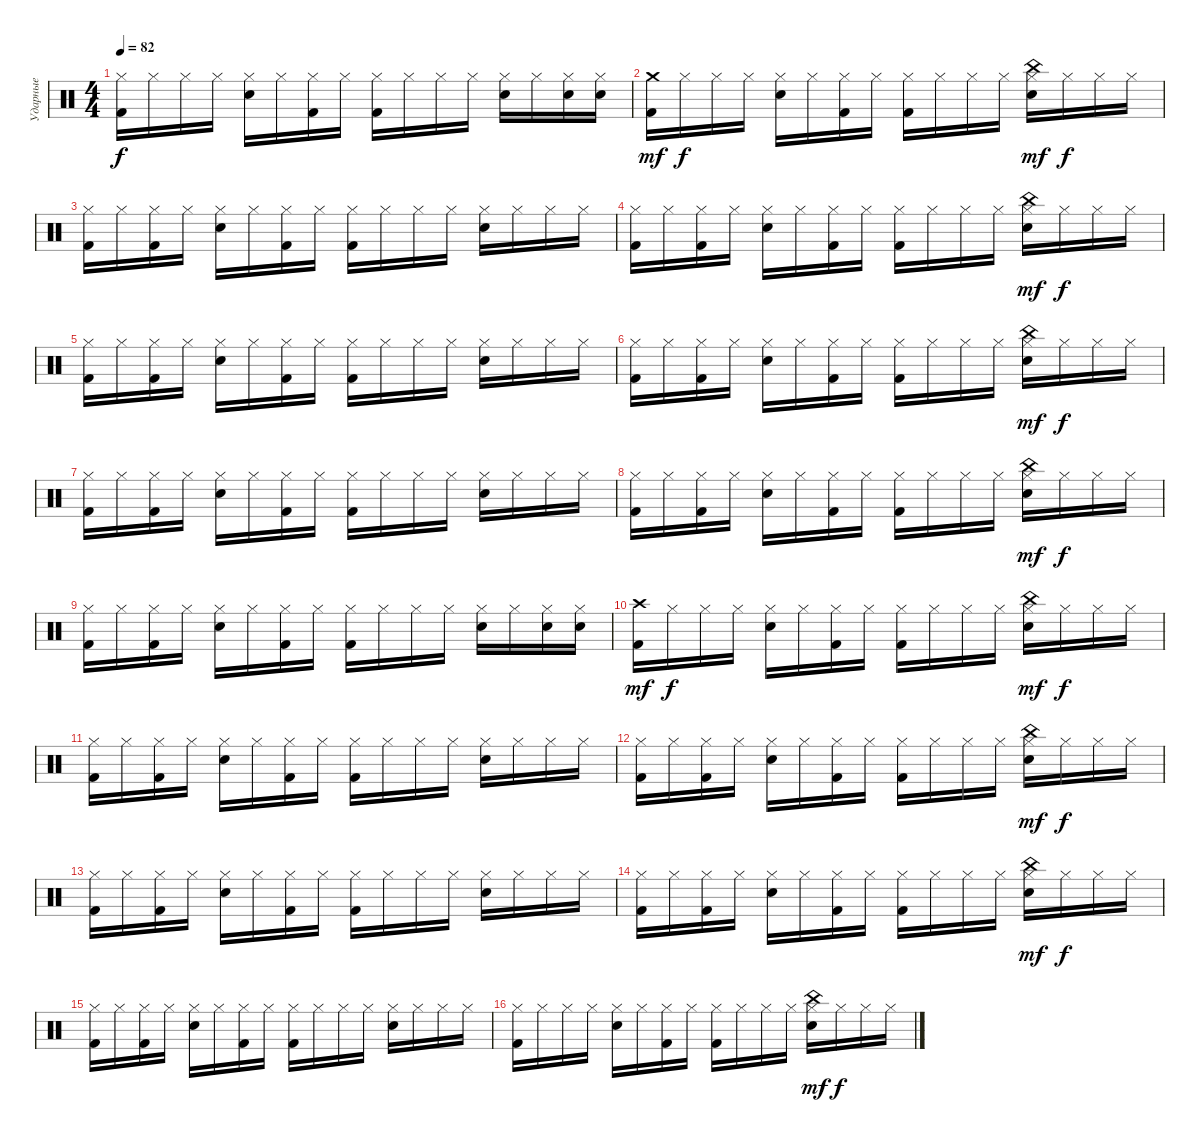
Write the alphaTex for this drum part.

\track ("Ударные" "Ударные") {instrument percussion}
\staff {score}
\articulation defaults
\ts (4 4)
\tempo 82
\clef neutral
\ks c
("Hi-Hat (closed)" "Kick (hit) 2").16{dy f} "Hi-Hat (closed)".16 "Hi-Hat (closed)".16 "Hi-Hat (closed)".16 ("Hi-Hat (closed)" "Electric Snare (hit)").16 "Hi-Hat (closed)".16 ("Hi-Hat (closed)" "Kick (hit) 2").16 "Hi-Hat (closed)".16 ("Hi-Hat (closed)" "Kick (hit) 2").16 "Hi-Hat (closed)".16 "Hi-Hat (closed)".16 "Hi-Hat (closed)".16 ("Hi-Hat (closed)" "Electric Snare (hit)").16 "Hi-Hat (closed)".16 ("Hi-Hat (closed)" "Electric Snare (hit)").16 ("Hi-Hat (closed)" "Electric Snare (hit)").16 |
("Crash medium (hit)" "Kick (hit) 2").16{dy mf} "Hi-Hat (closed)".16{dy f} "Hi-Hat (closed)".16 "Hi-Hat (closed)".16 ("Hi-Hat (closed)" "Electric Snare (hit)").16 "Hi-Hat (closed)".16 ("Hi-Hat (closed)" "Kick (hit) 2").16 "Hi-Hat (closed)".16 ("Hi-Hat (closed)" "Kick (hit) 2").16 "Hi-Hat (closed)".16 "Hi-Hat (closed)".16 "Hi-Hat (closed)".16 ("Hi-Hat (closed)" "Electric Snare (hit)" "China (hit)").16{dy mf} "Hi-Hat (closed)".16{dy f} "Hi-Hat (closed)".16 "Hi-Hat (closed)".16 |
("Hi-Hat (closed)" "Kick (hit) 2").16 "Hi-Hat (closed)".16 ("Hi-Hat (closed)" "Kick (hit) 2").16 "Hi-Hat (closed)".16 ("Hi-Hat (closed)" "Electric Snare (hit)").16 "Hi-Hat (closed)".16 ("Hi-Hat (closed)" "Kick (hit) 2").16 "Hi-Hat (closed)".16 ("Hi-Hat (closed)" "Kick (hit) 2").16 "Hi-Hat (closed)".16 "Hi-Hat (closed)".16 "Hi-Hat (closed)".16 ("Hi-Hat (closed)" "Electric Snare (hit)").16 "Hi-Hat (closed)".16 "Hi-Hat (closed)".16 "Hi-Hat (closed)".16 |
("Hi-Hat (closed)" "Kick (hit) 2").16 "Hi-Hat (closed)".16 ("Hi-Hat (closed)" "Kick (hit) 2").16 "Hi-Hat (closed)".16 ("Hi-Hat (closed)" "Electric Snare (hit)").16 "Hi-Hat (closed)".16 ("Hi-Hat (closed)" "Kick (hit) 2").16 "Hi-Hat (closed)".16 ("Hi-Hat (closed)" "Kick (hit) 2").16 "Hi-Hat (closed)".16 "Hi-Hat (closed)".16 "Hi-Hat (closed)".16 ("Hi-Hat (closed)" "China (hit)" "Electric Snare (hit)").16{dy mf} "Hi-Hat (closed)".16{dy f} "Hi-Hat (closed)".16 "Hi-Hat (closed)".16 |
("Hi-Hat (closed)" "Kick (hit) 2").16 "Hi-Hat (closed)".16 ("Hi-Hat (closed)" "Kick (hit) 2").16 "Hi-Hat (closed)".16 ("Hi-Hat (closed)" "Electric Snare (hit)").16 "Hi-Hat (closed)".16 ("Hi-Hat (closed)" "Kick (hit) 2").16 "Hi-Hat (closed)".16 ("Hi-Hat (closed)" "Kick (hit) 2").16 "Hi-Hat (closed)".16 "Hi-Hat (closed)".16 "Hi-Hat (closed)".16 ("Hi-Hat (closed)" "Electric Snare (hit)").16 "Hi-Hat (closed)".16 "Hi-Hat (closed)".16 "Hi-Hat (closed)".16 |
("Hi-Hat (closed)" "Kick (hit) 2").16 "Hi-Hat (closed)".16 ("Hi-Hat (closed)" "Kick (hit) 2").16 "Hi-Hat (closed)".16 ("Hi-Hat (closed)" "Electric Snare (hit)").16 "Hi-Hat (closed)".16 ("Hi-Hat (closed)" "Kick (hit) 2").16 "Hi-Hat (closed)".16 ("Hi-Hat (closed)" "Kick (hit) 2").16 "Hi-Hat (closed)".16 "Hi-Hat (closed)".16 "Hi-Hat (closed)".16 ("Hi-Hat (closed)" "China (hit)" "Electric Snare (hit)").16{dy mf} "Hi-Hat (closed)".16{dy f} "Hi-Hat (closed)".16 "Hi-Hat (closed)".16 |
("Hi-Hat (closed)" "Kick (hit) 2").16 "Hi-Hat (closed)".16 ("Hi-Hat (closed)" "Kick (hit) 2").16 "Hi-Hat (closed)".16 ("Hi-Hat (closed)" "Electric Snare (hit)").16 "Hi-Hat (closed)".16 ("Hi-Hat (closed)" "Kick (hit) 2").16 "Hi-Hat (closed)".16 ("Hi-Hat (closed)" "Kick (hit) 2").16 "Hi-Hat (closed)".16 "Hi-Hat (closed)".16 "Hi-Hat (closed)".16 ("Hi-Hat (closed)" "Electric Snare (hit)").16 "Hi-Hat (closed)".16 "Hi-Hat (closed)".16 "Hi-Hat (closed)".16 |
("Hi-Hat (closed)" "Kick (hit) 2").16 "Hi-Hat (closed)".16 ("Hi-Hat (closed)" "Kick (hit) 2").16 "Hi-Hat (closed)".16 ("Hi-Hat (closed)" "Electric Snare (hit)").16 "Hi-Hat (closed)".16 ("Hi-Hat (closed)" "Kick (hit) 2").16 "Hi-Hat (closed)".16 ("Hi-Hat (closed)" "Kick (hit) 2").16 "Hi-Hat (closed)".16 "Hi-Hat (closed)".16 "Hi-Hat (closed)".16 ("Hi-Hat (closed)" "China (hit)" "Electric Snare (hit)").16{dy mf} "Hi-Hat (closed)".16{dy f} "Hi-Hat (closed)".16 "Hi-Hat (closed)".16 |
("Hi-Hat (closed)" "Kick (hit) 2").16 "Hi-Hat (closed)".16 ("Hi-Hat (closed)" "Kick (hit) 2").16 "Hi-Hat (closed)".16 ("Hi-Hat (closed)" "Electric Snare (hit)").16 "Hi-Hat (closed)".16 ("Hi-Hat (closed)" "Kick (hit) 2").16 "Hi-Hat (closed)".16 ("Hi-Hat (closed)" "Kick (hit) 2").16 "Hi-Hat (closed)".16 "Hi-Hat (closed)".16 "Hi-Hat (closed)".16 ("Hi-Hat (closed)" "Electric Snare (hit)").16 "Hi-Hat (closed)".16 ("Hi-Hat (closed)" "Electric Snare (hit)").16 ("Hi-Hat (closed)" "Electric Snare (hit)").16 |
("Crash high (hit)" "Kick (hit) 2").16{dy mf} "Hi-Hat (closed)".16{dy f} "Hi-Hat (closed)".16 "Hi-Hat (closed)".16 ("Hi-Hat (closed)" "Electric Snare (hit)").16 "Hi-Hat (closed)".16 ("Hi-Hat (closed)" "Kick (hit) 2").16 "Hi-Hat (closed)".16 ("Hi-Hat (closed)" "Kick (hit) 2").16 "Hi-Hat (closed)".16 "Hi-Hat (closed)".16 "Hi-Hat (closed)".16 ("Hi-Hat (closed)" "China (hit)" "Electric Snare (hit)").16{dy mf} "Hi-Hat (closed)".16{dy f} "Hi-Hat (closed)".16 "Hi-Hat (closed)".16 |
("Hi-Hat (closed)" "Kick (hit) 2").16 "Hi-Hat (closed)".16 ("Hi-Hat (closed)" "Kick (hit) 2").16 "Hi-Hat (closed)".16 ("Hi-Hat (closed)" "Electric Snare (hit)").16 "Hi-Hat (closed)".16 ("Hi-Hat (closed)" "Kick (hit) 2").16 "Hi-Hat (closed)".16 ("Hi-Hat (closed)" "Kick (hit) 2").16 "Hi-Hat (closed)".16 "Hi-Hat (closed)".16 "Hi-Hat (closed)".16 ("Hi-Hat (closed)" "Electric Snare (hit)").16 "Hi-Hat (closed)".16 "Hi-Hat (closed)".16 "Hi-Hat (closed)".16 |
("Hi-Hat (closed)" "Kick (hit) 2").16 "Hi-Hat (closed)".16 ("Hi-Hat (closed)" "Kick (hit) 2").16 "Hi-Hat (closed)".16 ("Hi-Hat (closed)" "Electric Snare (hit)").16 "Hi-Hat (closed)".16 ("Hi-Hat (closed)" "Kick (hit) 2").16 "Hi-Hat (closed)".16 ("Hi-Hat (closed)" "Kick (hit) 2").16 "Hi-Hat (closed)".16 "Hi-Hat (closed)".16 "Hi-Hat (closed)".16 ("Hi-Hat (closed)" "China (hit)" "Electric Snare (hit)").16{dy mf} "Hi-Hat (closed)".16{dy f} "Hi-Hat (closed)".16 "Hi-Hat (closed)".16 |
("Hi-Hat (closed)" "Kick (hit) 2").16 "Hi-Hat (closed)".16 ("Hi-Hat (closed)" "Kick (hit) 2").16 "Hi-Hat (closed)".16 ("Hi-Hat (closed)" "Electric Snare (hit)").16 "Hi-Hat (closed)".16 ("Hi-Hat (closed)" "Kick (hit) 2").16 "Hi-Hat (closed)".16 ("Hi-Hat (closed)" "Kick (hit) 2").16 "Hi-Hat (closed)".16 "Hi-Hat (closed)".16 "Hi-Hat (closed)".16 ("Hi-Hat (closed)" "Electric Snare (hit)").16 "Hi-Hat (closed)".16 "Hi-Hat (closed)".16 "Hi-Hat (closed)".16 |
("Hi-Hat (closed)" "Kick (hit) 2").16 "Hi-Hat (closed)".16 ("Hi-Hat (closed)" "Kick (hit) 2").16 "Hi-Hat (closed)".16 ("Hi-Hat (closed)" "Electric Snare (hit)").16 "Hi-Hat (closed)".16 ("Hi-Hat (closed)" "Kick (hit) 2").16 "Hi-Hat (closed)".16 ("Hi-Hat (closed)" "Kick (hit) 2").16 "Hi-Hat (closed)".16 "Hi-Hat (closed)".16 "Hi-Hat (closed)".16 ("Hi-Hat (closed)" "China (hit)" "Electric Snare (hit)").16{dy mf} "Hi-Hat (closed)".16{dy f} "Hi-Hat (closed)".16 "Hi-Hat (closed)".16 |
("Hi-Hat (closed)" "Kick (hit) 2").16 "Hi-Hat (closed)".16 ("Hi-Hat (closed)" "Kick (hit) 2").16 "Hi-Hat (closed)".16 ("Hi-Hat (closed)" "Electric Snare (hit)").16 "Hi-Hat (closed)".16 ("Hi-Hat (closed)" "Kick (hit) 2").16 "Hi-Hat (closed)".16 ("Hi-Hat (closed)" "Kick (hit) 2").16 "Hi-Hat (closed)".16 "Hi-Hat (closed)".16 "Hi-Hat (closed)".16 ("Hi-Hat (closed)" "Electric Snare (hit)").16 "Hi-Hat (closed)".16 "Hi-Hat (closed)".16 "Hi-Hat (closed)".16 |
("Hi-Hat (closed)" "Kick (hit) 2").16 "Hi-Hat (closed)".16 "Hi-Hat (closed)".16 "Hi-Hat (closed)".16 ("Hi-Hat (closed)" "Electric Snare (hit)").16 "Hi-Hat (closed)".16 ("Hi-Hat (closed)" "Kick (hit) 2").16 "Hi-Hat (closed)".16 ("Hi-Hat (closed)" "Kick (hit) 2").16 "Hi-Hat (closed)".16 "Hi-Hat (closed)".16 "Hi-Hat (closed)".16 ("Hi-Hat (closed)" "China (hit)" "Electric Snare (hit)").16{dy mf} "Hi-Hat (closed)".16{dy f} "Hi-Hat (closed)".16 "Hi-Hat (closed)".16
